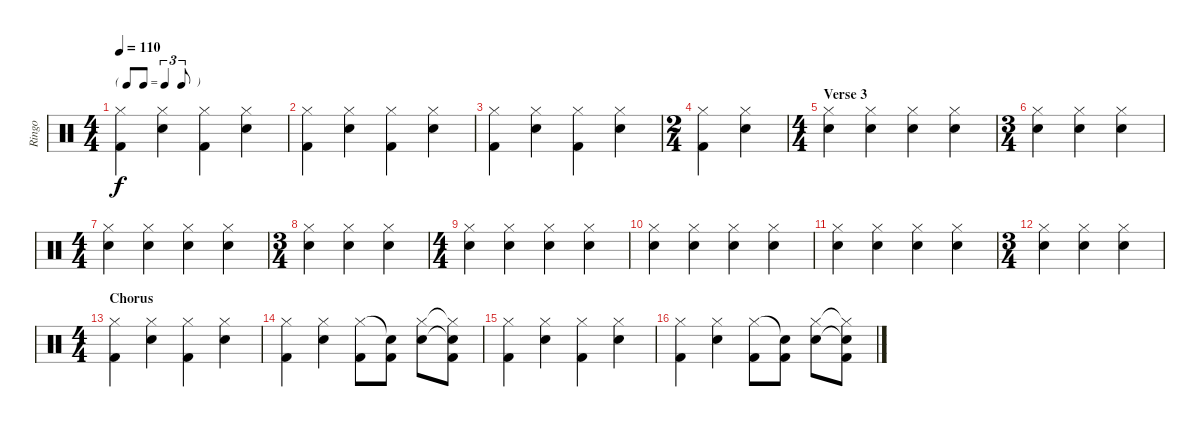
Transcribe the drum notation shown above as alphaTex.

\track ("Ringo" "Ringo") {instrument percussion}
\staff {score}
\articulation defaults
\ts (4 4)
\tf triplet8th
\tempo 110
\clef neutral
\ks c
("Hi-Hat (closed)" "Kick (hit) 2").4{dy f} ("Hi-Hat (closed)" "Snare (hit) 2").4 ("Hi-Hat (closed)" "Kick (hit) 2").4 ("Hi-Hat (closed)" "Snare (hit) 2").4 |
("Hi-Hat (closed)" "Kick (hit) 2").4 ("Hi-Hat (closed)" "Snare (hit) 2").4 ("Hi-Hat (closed)" "Kick (hit) 2").4 ("Hi-Hat (closed)" "Snare (hit) 2").4 |
("Hi-Hat (closed)" "Kick (hit) 2").4 ("Hi-Hat (closed)" "Snare (hit) 2").4 ("Hi-Hat (closed)" "Kick (hit) 2").4 ("Hi-Hat (closed)" "Snare (hit) 2").4 |
\ts (2 4)
("Hi-Hat (closed)" "Kick (hit) 2").4 ("Hi-Hat (closed)" "Snare (hit) 2").4 |
\ts (4 4)
\section ("" "Verse 3")
("Hi-Hat (closed)" "Snare (hit) 2").4 ("Hi-Hat (closed)" "Snare (hit) 2").4 ("Hi-Hat (closed)" "Snare (hit) 2").4 ("Hi-Hat (closed)" "Snare (hit) 2").4 |
\ts (3 4)
("Hi-Hat (closed)" "Snare (hit) 2").4 ("Hi-Hat (closed)" "Snare (hit) 2").4 ("Hi-Hat (closed)" "Snare (hit) 2").4 |
\ts (4 4)
("Hi-Hat (closed)" "Snare (hit) 2").4 ("Hi-Hat (closed)" "Snare (hit) 2").4 ("Hi-Hat (closed)" "Snare (hit) 2").4 ("Hi-Hat (closed)" "Snare (hit) 2").4 |
\ts (3 4)
("Hi-Hat (closed)" "Snare (hit) 2").4 ("Hi-Hat (closed)" "Snare (hit) 2").4 ("Hi-Hat (closed)" "Snare (hit) 2").4 |
\ts (4 4)
("Hi-Hat (closed)" "Snare (hit) 2").4 ("Hi-Hat (closed)" "Snare (hit) 2").4 ("Hi-Hat (closed)" "Snare (hit) 2").4 ("Hi-Hat (closed)" "Snare (hit) 2").4 |
("Hi-Hat (closed)" "Snare (hit) 2").4 ("Hi-Hat (closed)" "Snare (hit) 2").4 ("Hi-Hat (closed)" "Snare (hit) 2").4 ("Hi-Hat (closed)" "Snare (hit) 2").4 |
("Hi-Hat (closed)" "Snare (hit) 2").4 ("Hi-Hat (closed)" "Snare (hit) 2").4 ("Hi-Hat (closed)" "Snare (hit) 2").4 ("Hi-Hat (closed)" "Snare (hit) 2").4 |
\ts (3 4)
("Hi-Hat (closed)" "Snare (hit) 2").4 ("Hi-Hat (closed)" "Snare (hit) 2").4 ("Hi-Hat (closed)" "Snare (hit) 2").4 |
\ts (4 4)
\section ("" "Chorus")
("Hi-Hat (closed)" "Kick (hit) 2").4 ("Hi-Hat (closed)" "Snare (hit) 2").4 ("Hi-Hat (closed)" "Kick (hit) 2").4 ("Hi-Hat (closed)" "Snare (hit) 2").4 |
("Hi-Hat (closed)" "Kick (hit) 2").4 ("Hi-Hat (closed)" "Snare (hit) 2").4 ("Hi-Hat (closed)" "Kick (hit) 2").8 ("Snare (hit)"{t} "Kick (hit) 2").8 ("Hi-Hat (closed)" "Snare (hit) 2").8 ("Hi-Hat (closed)"{t} "Snare (hit) 2"{t} "Kick (hit) 2").8 |
("Hi-Hat (closed)" "Kick (hit) 2").4 ("Hi-Hat (closed)" "Snare (hit) 2").4 ("Hi-Hat (closed)" "Kick (hit) 2").4 ("Hi-Hat (closed)" "Snare (hit) 2").4 |
("Hi-Hat (closed)" "Kick (hit) 2").4 ("Hi-Hat (closed)" "Snare (hit) 2").4 ("Hi-Hat (closed)" "Kick (hit) 2").8 ("Snare (hit)"{t} "Kick (hit) 2").8 ("Hi-Hat (closed)" "Snare (hit) 2").8 ("Hi-Hat (closed)"{t} "Snare (hit) 2"{t} "Kick (hit) 2").8
